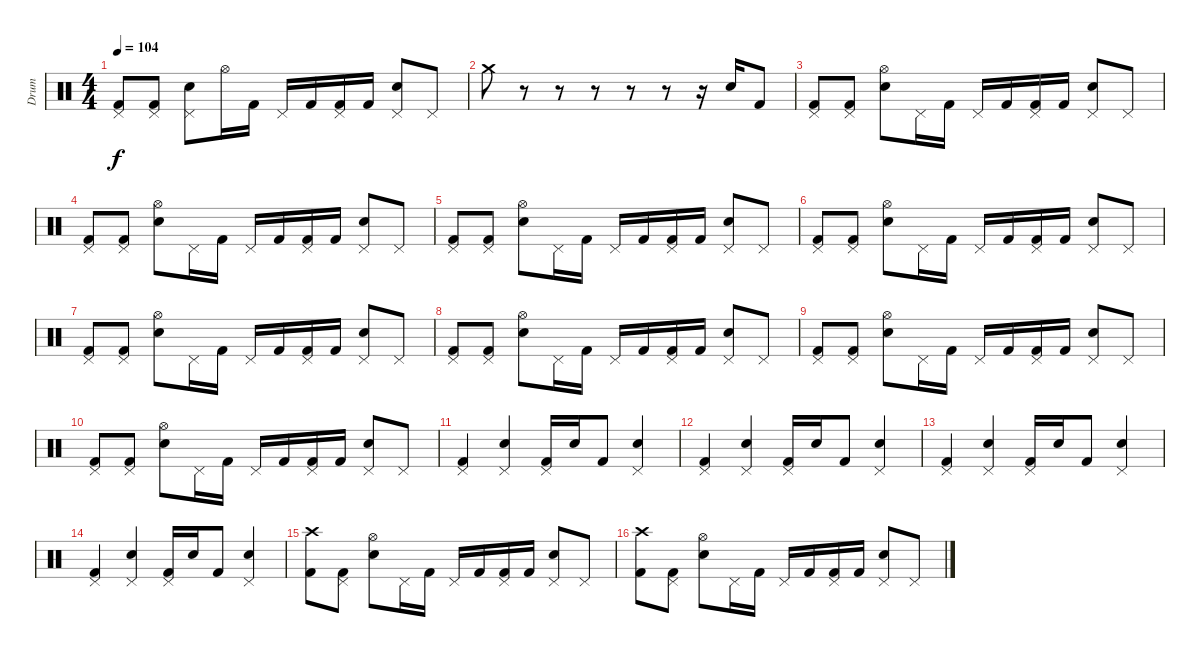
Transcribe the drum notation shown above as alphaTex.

\track ("Drum" "Drum") {instrument percussion}
\staff {score}
\articulation defaults
\ts (4 4)
\tempo 104
\clef neutral
\ks c
("Pedal Hi-Hat (hit)" "Kick (hit) 2").8{dy f} ("Pedal Hi-Hat (hit)" "Kick (hit) 2").8 ("Pedal Hi-Hat (hit)" "Snare (hit) 2").8 "Hi-Hat (open)".16 "Kick (hit) 2".16 "Pedal Hi-Hat (hit)".16 "Kick (hit) 2".16 ("Pedal Hi-Hat (hit)" "Kick (hit) 2").16 "Kick (hit) 2".16 ("Pedal Hi-Hat (hit)" "Snare (hit) 2").8 "Pedal Hi-Hat (hit)".8 |
"Crash medium (hit)".8 r.8 r.8 r.8 r.8 r.8 r.16 "Snare (hit) 2".16 "Kick (hit) 2".8 |
("Pedal Hi-Hat (hit)" "Kick (hit) 2").8 ("Pedal Hi-Hat (hit)" "Kick (hit) 2").8 ("Hi-Hat (open)" "Snare (hit) 2").8 "Pedal Hi-Hat (hit)".16 "Kick (hit) 2".16 "Pedal Hi-Hat (hit)".16 "Kick (hit) 2".16 ("Pedal Hi-Hat (hit)" "Kick (hit) 2").16 "Kick (hit) 2".16 ("Pedal Hi-Hat (hit)" "Snare (hit) 2").8 "Pedal Hi-Hat (hit)".8 |
("Pedal Hi-Hat (hit)" "Kick (hit) 2").8 ("Pedal Hi-Hat (hit)" "Kick (hit) 2").8 ("Hi-Hat (open)" "Snare (hit) 2").8 "Pedal Hi-Hat (hit)".16 "Kick (hit) 2".16 "Pedal Hi-Hat (hit)".16 "Kick (hit) 2".16 ("Pedal Hi-Hat (hit)" "Kick (hit) 2").16 "Kick (hit) 2".16 ("Pedal Hi-Hat (hit)" "Snare (hit) 2").8 "Pedal Hi-Hat (hit)".8 |
("Pedal Hi-Hat (hit)" "Kick (hit) 2").8 ("Pedal Hi-Hat (hit)" "Kick (hit) 2").8 ("Hi-Hat (open)" "Snare (hit) 2").8 "Pedal Hi-Hat (hit)".16 "Kick (hit) 2".16 "Pedal Hi-Hat (hit)".16 "Kick (hit) 2".16 ("Pedal Hi-Hat (hit)" "Kick (hit) 2").16 "Kick (hit) 2".16 ("Pedal Hi-Hat (hit)" "Snare (hit) 2").8 "Pedal Hi-Hat (hit)".8 |
("Pedal Hi-Hat (hit)" "Kick (hit) 2").8 ("Pedal Hi-Hat (hit)" "Kick (hit) 2").8 ("Hi-Hat (open)" "Snare (hit) 2").8 "Pedal Hi-Hat (hit)".16 "Kick (hit) 2".16 "Pedal Hi-Hat (hit)".16 "Kick (hit) 2".16 ("Pedal Hi-Hat (hit)" "Kick (hit) 2").16 "Kick (hit) 2".16 ("Pedal Hi-Hat (hit)" "Snare (hit) 2").8 "Pedal Hi-Hat (hit)".8 |
("Pedal Hi-Hat (hit)" "Kick (hit) 2").8 ("Pedal Hi-Hat (hit)" "Kick (hit) 2").8 ("Hi-Hat (open)" "Snare (hit) 2").8 "Pedal Hi-Hat (hit)".16 "Kick (hit) 2".16 "Pedal Hi-Hat (hit)".16 "Kick (hit) 2".16 ("Pedal Hi-Hat (hit)" "Kick (hit) 2").16 "Kick (hit) 2".16 ("Pedal Hi-Hat (hit)" "Snare (hit) 2").8 "Pedal Hi-Hat (hit)".8 |
("Pedal Hi-Hat (hit)" "Kick (hit) 2").8 ("Pedal Hi-Hat (hit)" "Kick (hit) 2").8 ("Hi-Hat (open)" "Snare (hit) 2").8 "Pedal Hi-Hat (hit)".16 "Kick (hit) 2".16 "Pedal Hi-Hat (hit)".16 "Kick (hit) 2".16 ("Pedal Hi-Hat (hit)" "Kick (hit) 2").16 "Kick (hit) 2".16 ("Pedal Hi-Hat (hit)" "Snare (hit) 2").8 "Pedal Hi-Hat (hit)".8 |
("Pedal Hi-Hat (hit)" "Kick (hit) 2").8 ("Pedal Hi-Hat (hit)" "Kick (hit) 2").8 ("Hi-Hat (open)" "Snare (hit) 2").8 "Pedal Hi-Hat (hit)".16 "Kick (hit) 2".16 "Pedal Hi-Hat (hit)".16 "Kick (hit) 2".16 ("Pedal Hi-Hat (hit)" "Kick (hit) 2").16 "Kick (hit) 2".16 ("Pedal Hi-Hat (hit)" "Snare (hit) 2").8 "Pedal Hi-Hat (hit)".8 |
("Pedal Hi-Hat (hit)" "Kick (hit) 2").8 ("Pedal Hi-Hat (hit)" "Kick (hit) 2").8 ("Hi-Hat (open)" "Snare (hit) 2").8 "Pedal Hi-Hat (hit)".16 "Kick (hit) 2".16 "Pedal Hi-Hat (hit)".16 "Kick (hit) 2".16 ("Pedal Hi-Hat (hit)" "Kick (hit) 2").16 "Kick (hit) 2".16 ("Pedal Hi-Hat (hit)" "Snare (hit) 2").8 "Pedal Hi-Hat (hit)".8 |
("Pedal Hi-Hat (hit)" "Kick (hit) 2").4 ("Pedal Hi-Hat (hit)" "Snare (hit) 2").4 ("Pedal Hi-Hat (hit)" "Kick (hit) 2").16 "Snare (hit) 2".16 "Kick (hit) 2".8 ("Pedal Hi-Hat (hit)" "Snare (hit) 2").4 |
("Pedal Hi-Hat (hit)" "Kick (hit) 2").4 ("Pedal Hi-Hat (hit)" "Snare (hit) 2").4 ("Pedal Hi-Hat (hit)" "Kick (hit) 2").16 "Snare (hit) 2".16 "Kick (hit) 2".8 ("Pedal Hi-Hat (hit)" "Snare (hit) 2").4 |
("Pedal Hi-Hat (hit)" "Kick (hit) 2").4 ("Pedal Hi-Hat (hit)" "Snare (hit) 2").4 ("Pedal Hi-Hat (hit)" "Kick (hit) 2").16 "Snare (hit) 2".16 "Kick (hit) 2".8 ("Pedal Hi-Hat (hit)" "Snare (hit) 2").4 |
("Pedal Hi-Hat (hit)" "Kick (hit) 2").4 ("Pedal Hi-Hat (hit)" "Snare (hit) 2").4 ("Pedal Hi-Hat (hit)" "Kick (hit) 2").16 "Snare (hit) 2".16 "Kick (hit) 2".8 ("Pedal Hi-Hat (hit)" "Snare (hit) 2").4 |
("Crash high (hit)" "Kick (hit) 2").8 ("Pedal Hi-Hat (hit)" "Kick (hit) 2").8 ("Hi-Hat (open)" "Snare (hit) 2").8 "Pedal Hi-Hat (hit)".16 "Kick (hit) 2".16 "Pedal Hi-Hat (hit)".16 "Kick (hit) 2".16 ("Pedal Hi-Hat (hit)" "Kick (hit) 2").16 "Kick (hit) 2".16 ("Pedal Hi-Hat (hit)" "Snare (hit) 2").8 "Pedal Hi-Hat (hit)".8 |
("Crash high (hit)" "Kick (hit) 2").8 ("Pedal Hi-Hat (hit)" "Kick (hit) 2").8 ("Hi-Hat (open)" "Snare (hit) 2").8 "Pedal Hi-Hat (hit)".16 "Kick (hit) 2".16 "Pedal Hi-Hat (hit)".16 "Kick (hit) 2".16 ("Pedal Hi-Hat (hit)" "Kick (hit) 2").16 "Kick (hit) 2".16 ("Pedal Hi-Hat (hit)" "Snare (hit) 2").8 "Pedal Hi-Hat (hit)".8
